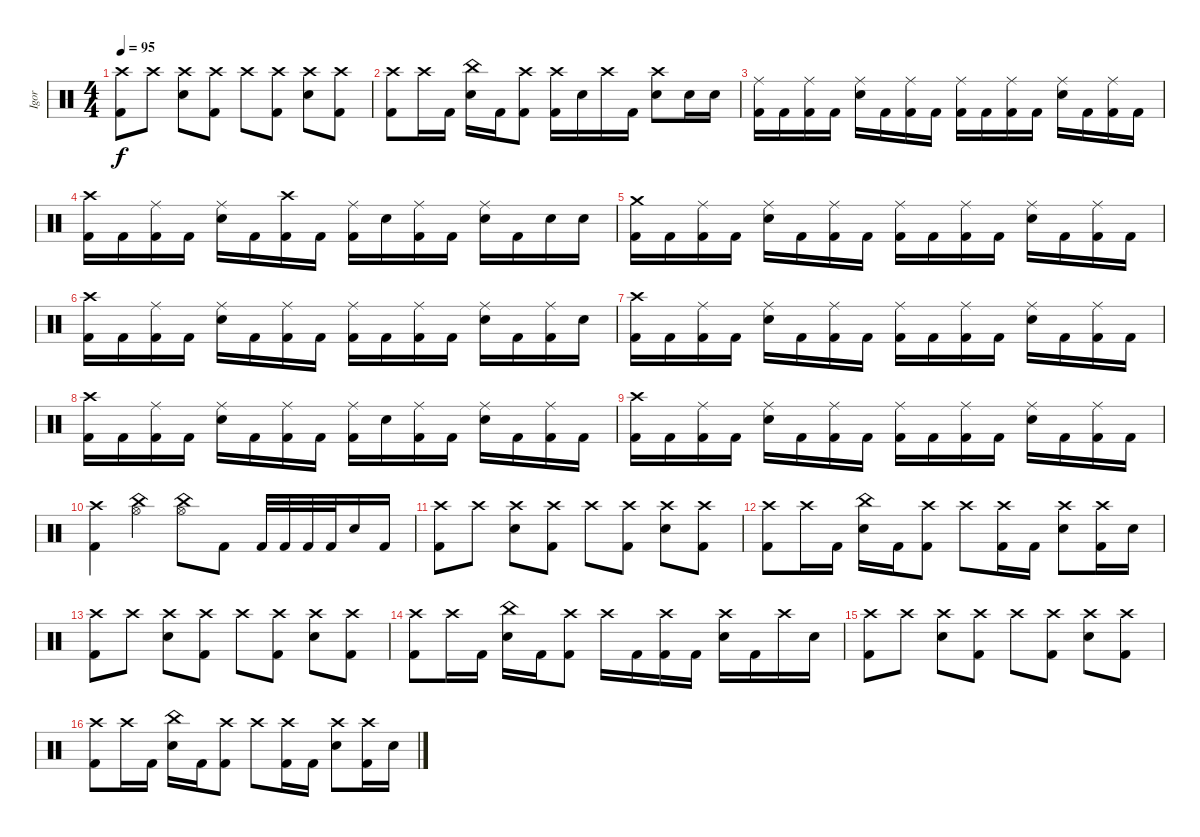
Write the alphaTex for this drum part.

\track ("Igor" "Igor") {instrument percussion}
\staff {score}
\articulation defaults
\ts (4 4)
\tempo 95
\clef neutral
\ks c
("Crash high (hit)" "Kick (hit) 2").8{dy f} "Crash high (hit)".8 ("Crash high (hit)" "Electric Snare (hit)").8 ("Crash high (hit)" "Kick (hit) 2").8 "Crash high (hit)".8 ("Crash high (hit)" "Kick (hit) 2").8 ("Crash high (hit)" "Electric Snare (hit)").8 ("Crash high (hit)" "Kick (hit) 2").8 |
("Crash high (hit)" "Kick (hit) 2").8 "Crash high (hit)".16 "Kick (hit) 2".16 ("China (hit)" "Electric Snare (hit)").16 "Kick (hit) 2".16 ("Crash high (hit)" "Kick (hit) 2").8 ("Crash high (hit)" "Kick (hit) 2").16 "Electric Snare (hit)".16 "Crash high (hit)".16 "Kick (hit) 2".16 ("Crash high (hit)" "Electric Snare (hit)").8 "Electric Snare (hit)".16 "Electric Snare (hit)".16 |
("Kick (hit) 2" "Ride (middle)").16 "Kick (hit) 2".16 ("Kick (hit) 2" "Ride (middle)").16 "Kick (hit) 2".16 ("Electric Snare (hit)" "Ride (middle)").16 "Kick (hit) 2".16 ("Kick (hit) 2" "Ride (middle)").16 "Kick (hit) 2".16 ("Kick (hit) 2" "Ride (middle)").16 "Kick (hit) 2".16 ("Kick (hit) 2" "Ride (middle)").16 "Kick (hit) 2".16 ("Electric Snare (hit)" "Ride (middle)").16 "Kick (hit) 2".16 ("Kick (hit) 2" "Ride (middle)").16 "Kick (hit) 2".16 |
("Crash high (hit)" "Kick (hit) 2").16 "Kick (hit) 2".16 ("Kick (hit) 2" "Ride (middle)").16 "Kick (hit) 2".16 ("Electric Snare (hit)" "Ride (middle)").16 "Kick (hit) 2".16 ("Crash high (hit)" "Kick (hit) 2").16 "Kick (hit) 2".16 ("Kick (hit) 2" "Ride (middle)").16 "Electric Snare (hit)".16 ("Kick (hit) 2" "Ride (middle)").16 "Kick (hit) 2".16 ("Electric Snare (hit)" "Ride (middle)").16 "Kick (hit) 2".16 "Electric Snare (hit)".16 "Electric Snare (hit)".16 |
("Crash medium (hit)" "Kick (hit) 2").16 "Kick (hit) 2".16 ("Kick (hit) 2" "Ride (middle)").16 "Kick (hit) 2".16 ("Electric Snare (hit)" "Ride (middle)").16 "Kick (hit) 2".16 ("Kick (hit) 2" "Ride (middle)").16 "Kick (hit) 2".16 ("Kick (hit) 2" "Ride (middle)").16 "Kick (hit) 2".16 ("Kick (hit) 2" "Ride (middle)").16 "Kick (hit) 2".16 ("Electric Snare (hit)" "Ride (middle)").16 "Kick (hit) 2".16 ("Kick (hit) 2" "Ride (middle)").16 "Kick (hit) 2".16 |
("Crash high (hit)" "Kick (hit) 2").16 "Kick (hit) 2".16 ("Kick (hit) 2" "Ride (middle)").16 "Kick (hit) 2".16 ("Electric Snare (hit)" "Ride (middle)").16 "Kick (hit) 2".16 ("Kick (hit) 2" "Ride (middle)").16 "Kick (hit) 2".16 ("Kick (hit) 2" "Ride (middle)").16 "Kick (hit) 2".16 ("Kick (hit) 2" "Ride (middle)").16 "Kick (hit) 2".16 ("Electric Snare (hit)" "Ride (middle)").16 "Kick (hit) 2".16 ("Kick (hit) 2" "Ride (middle)").16 "Electric Snare (hit)".16 |
("Crash high (hit)" "Kick (hit) 2").16 "Kick (hit) 2".16 ("Kick (hit) 2" "Ride (middle)").16 "Kick (hit) 2".16 ("Electric Snare (hit)" "Ride (middle)").16 "Kick (hit) 2".16 ("Kick (hit) 2" "Ride (middle)").16 "Kick (hit) 2".16 ("Kick (hit) 2" "Ride (middle)").16 "Kick (hit) 2".16 ("Kick (hit) 2" "Ride (middle)").16 "Kick (hit) 2".16 ("Electric Snare (hit)" "Ride (middle)").16 "Kick (hit) 2".16 ("Kick (hit) 2" "Ride (middle)").16 "Kick (hit) 2".16 |
("Crash high (hit)" "Kick (hit) 2").16 "Kick (hit) 2".16 ("Kick (hit) 2" "Ride (middle)").16 "Kick (hit) 2".16 ("Electric Snare (hit)" "Ride (middle)").16 "Kick (hit) 2".16 ("Kick (hit) 2" "Ride (middle)").16 "Kick (hit) 2".16 ("Kick (hit) 2" "Ride (middle)").16 "Electric Snare (hit)".16 ("Kick (hit) 2" "Ride (middle)").16 "Kick (hit) 2".16 ("Electric Snare (hit)" "Ride (middle)").16 "Kick (hit) 2".16 ("Kick (hit) 2" "Ride (middle)").16 "Kick (hit) 2".16 |
("Crash high (hit)" "Kick (hit) 2").16 "Kick (hit) 2".16 ("Kick (hit) 2" "Ride (middle)").16 "Kick (hit) 2".16 ("Electric Snare (hit)" "Ride (middle)").16 "Kick (hit) 2".16 ("Kick (hit) 2" "Ride (middle)").16 "Kick (hit) 2".16 ("Kick (hit) 2" "Ride (middle)").16 "Kick (hit) 2".16 ("Kick (hit) 2" "Ride (middle)").16 "Kick (hit) 2".16 ("Electric Snare (hit)" "Ride (middle)").16 "Kick (hit) 2".16 ("Kick (hit) 2" "Ride (middle)").16 "Kick (hit) 2".16 |
("Crash high (hit)" "Kick (hit) 2").4 ("China (hit)" "Hi-Hat (open)").4 ("China (hit)" "Hi-Hat (open)").8 "Kick (hit) 2".8 "Kick (hit) 2".32 "Kick (hit) 2".32 "Kick (hit) 2".32 "Kick (hit) 2".32 "Electric Snare (hit)".16 "Kick (hit) 2".16 |
("Crash high (hit)" "Kick (hit) 2").8 "Crash high (hit)".8 ("Crash high (hit)" "Electric Snare (hit)").8 ("Crash high (hit)" "Kick (hit) 2").8 "Crash high (hit)".8 ("Crash high (hit)" "Kick (hit) 2").8 ("Crash high (hit)" "Electric Snare (hit)").8 ("Crash high (hit)" "Kick (hit) 2").8 |
("Crash high (hit)" "Kick (hit) 2").8 "Crash high (hit)".16 "Kick (hit) 2".16 ("China (hit)" "Electric Snare (hit)").16 "Kick (hit) 2".16 ("Crash high (hit)" "Kick (hit) 2").8 "Crash high (hit)".8 ("Crash high (hit)" "Kick (hit) 2").16 "Kick (hit) 2".16 ("Crash high (hit)" "Electric Snare (hit)").8 ("Crash high (hit)" "Kick (hit) 2").16 "Electric Snare (hit)".16 |
("Crash high (hit)" "Kick (hit) 2").8 "Crash high (hit)".8 ("Crash high (hit)" "Electric Snare (hit)").8 ("Crash high (hit)" "Kick (hit) 2").8 "Crash high (hit)".8 ("Crash high (hit)" "Kick (hit) 2").8 ("Crash high (hit)" "Electric Snare (hit)").8 ("Crash high (hit)" "Kick (hit) 2").8 |
("Crash high (hit)" "Kick (hit) 2").8 "Crash high (hit)".16 "Kick (hit) 2".16 ("China (hit)" "Electric Snare (hit)").16 "Kick (hit) 2".16 ("Crash high (hit)" "Kick (hit) 2").8 "Crash high (hit)".16 "Kick (hit) 2".16 ("Crash high (hit)" "Kick (hit) 2").16 "Kick (hit) 2".16 ("Crash high (hit)" "Electric Snare (hit)").16 "Kick (hit) 2".16 "Crash high (hit)".16 "Electric Snare (hit)".16 |
("Crash high (hit)" "Kick (hit) 2").8 "Crash high (hit)".8 ("Crash high (hit)" "Electric Snare (hit)").8 ("Crash high (hit)" "Kick (hit) 2").8 "Crash high (hit)".8 ("Crash high (hit)" "Kick (hit) 2").8 ("Crash high (hit)" "Electric Snare (hit)").8 ("Crash high (hit)" "Kick (hit) 2").8 |
("Crash high (hit)" "Kick (hit) 2").8 "Crash high (hit)".16 "Kick (hit) 2".16 ("China (hit)" "Electric Snare (hit)").16 "Kick (hit) 2".16 ("Crash high (hit)" "Kick (hit) 2").8 "Crash high (hit)".8 ("Crash high (hit)" "Kick (hit) 2").16 "Kick (hit) 2".16 ("Crash high (hit)" "Electric Snare (hit)").8 ("Crash high (hit)" "Kick (hit) 2").16 "Electric Snare (hit)".16
